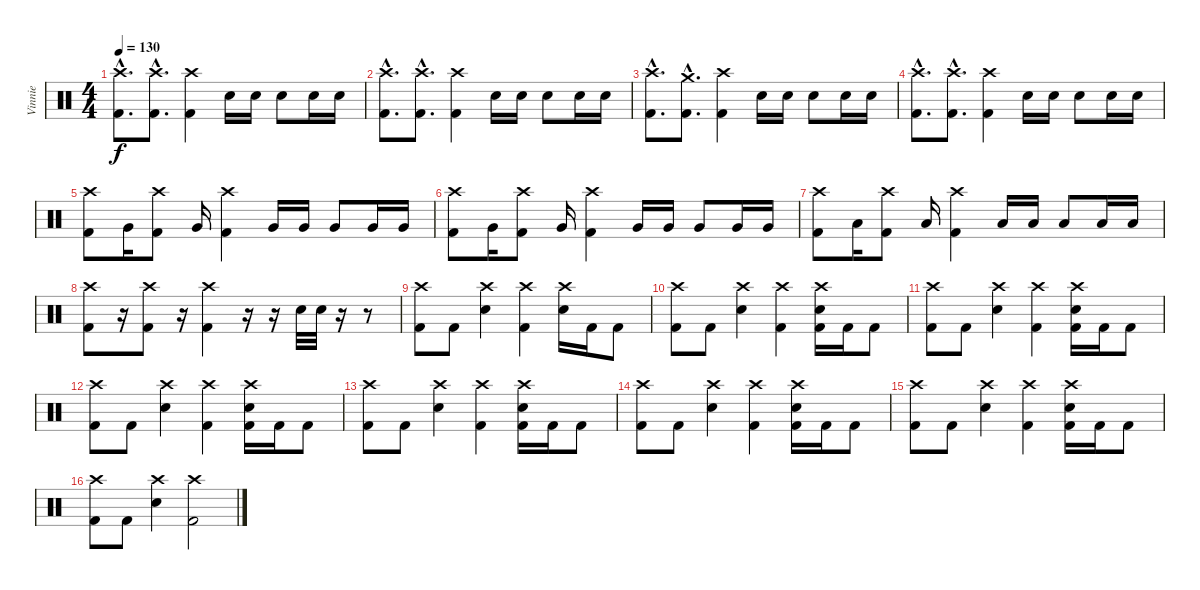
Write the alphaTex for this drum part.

\track ("Vinnie" "Vinnie") {instrument percussion}
\staff {score}
\articulation defaults
\ts (4 4)
\tempo 130
\clef neutral
\ks c
("Crash high (hit)"{hac} "Kick (hit) 2"{hac}).8{d dy f} ("Crash high (hit)"{hac} "Kick (hit) 2"{hac}).8{d} ("Crash high (hit)" "Kick (hit) 2").4 "Electric Snare (hit)".16 "Electric Snare (hit)".16 "Electric Snare (hit)".8 "Electric Snare (hit)".16 "Electric Snare (hit)".16 |
("Crash high (hit)"{hac} "Kick (hit) 2"{hac}).8{d} ("Crash high (hit)"{hac} "Kick (hit) 2"{hac}).8{d} ("Crash high (hit)" "Kick (hit) 2").4 "Electric Snare (hit)".16 "Electric Snare (hit)".16 "Electric Snare (hit)".8 "Electric Snare (hit)".16 "Electric Snare (hit)".16 |
("Crash high (hit)"{hac} "Kick (hit) 2"{hac}).8{d} ("Crash medium (hit)"{hac} "Kick (hit) 2"{hac}).8{d} ("Crash high (hit)" "Kick (hit) 2").4 "Electric Snare (hit)".16 "Electric Snare (hit)".16 "Electric Snare (hit)".8 "Electric Snare (hit)".16 "Electric Snare (hit)".16 |
("Crash high (hit)"{hac} "Kick (hit) 2"{hac}).8{d} ("Crash high (hit)"{hac} "Kick (hit) 2"{hac}).8{d} ("Crash high (hit)" "Kick (hit) 2").4 "Electric Snare (hit)".16 "Electric Snare (hit)".16 "Electric Snare (hit)".8 "Electric Snare (hit)".16 "Electric Snare (hit)".16 |
("Crash high (hit)" "Kick (hit) 2").8 "Very Low Tom (hit)".16 ("Crash high (hit)" "Kick (hit) 2").8 "Very Low Tom (hit)".16 ("Crash high (hit)" "Kick (hit) 2").4 "Very Low Tom (hit)".16 "Very Low Tom (hit)".16 "Very Low Tom (hit)".8 "Very Low Tom (hit)".16 "Very Low Tom (hit)".16 |
("Crash high (hit)" "Kick (hit) 2").8 "Very Low Tom (hit)".16 ("Crash high (hit)" "Kick (hit) 2").8 "Very Low Tom (hit)".16 ("Crash high (hit)" "Kick (hit) 2").4 "Very Low Tom (hit)".16 "Very Low Tom (hit)".16 "Very Low Tom (hit)".8 "Very Low Tom (hit)".16 "Very Low Tom (hit)".16 |
("Crash high (hit)" "Kick (hit) 2").8 "Low Floor Tom (hit)".16 ("Crash high (hit)" "Kick (hit) 2").8 "Low Floor Tom (hit)".16 ("Crash high (hit)" "Kick (hit) 2").4 "Low Floor Tom (hit)".16 "Low Floor Tom (hit)".16 "Low Floor Tom (hit)".8 "Low Floor Tom (hit)".16 "Low Floor Tom (hit)".16 |
("Crash high (hit)" "Kick (hit) 2").8 r.16 ("Crash high (hit)" "Kick (hit) 2").8 r.16 ("Crash high (hit)" "Kick (hit) 2").4 r.16 r.16 "Electric Snare (hit)".32 "Electric Snare (hit)".32 r.16 r.8 |
("Crash high (hit)" "Kick (hit) 2").8 "Kick (hit) 2".8 ("Crash high (hit)" "Electric Snare (hit)").4 ("Crash high (hit)" "Kick (hit) 2").4 ("Crash high (hit)" "Electric Snare (hit)").16 "Kick (hit) 2".16 "Kick (hit) 2".8 |
("Crash high (hit)" "Kick (hit) 2").8 "Kick (hit) 2".8 ("Crash high (hit)" "Electric Snare (hit)").4 ("Crash high (hit)" "Kick (hit) 2").4 ("Crash high (hit)" "Electric Snare (hit)" "Kick (hit) 2").16 "Kick (hit) 2".16 "Kick (hit) 2".8 |
("Crash high (hit)" "Kick (hit) 2").8 "Kick (hit) 2".8 ("Crash high (hit)" "Electric Snare (hit)").4 ("Crash high (hit)" "Kick (hit) 2").4 ("Crash high (hit)" "Electric Snare (hit)" "Kick (hit) 2").16 "Kick (hit) 2".16 "Kick (hit) 2".8 |
("Crash high (hit)" "Kick (hit) 2").8 "Kick (hit) 2".8 ("Crash high (hit)" "Electric Snare (hit)").4 ("Crash high (hit)" "Kick (hit) 2").4 ("Crash high (hit)" "Electric Snare (hit)" "Kick (hit) 2").16 "Kick (hit) 2".16 "Kick (hit) 2".8 |
("Crash high (hit)" "Kick (hit) 2").8 "Kick (hit) 2".8 ("Crash high (hit)" "Electric Snare (hit)").4 ("Crash high (hit)" "Kick (hit) 2").4 ("Crash high (hit)" "Electric Snare (hit)" "Kick (hit) 2").16 "Kick (hit) 2".16 "Kick (hit) 2".8 |
("Crash high (hit)" "Kick (hit) 2").8 "Kick (hit) 2".8 ("Crash high (hit)" "Electric Snare (hit)").4 ("Crash high (hit)" "Kick (hit) 2").4 ("Crash high (hit)" "Electric Snare (hit)" "Kick (hit) 2").16 "Kick (hit) 2".16 "Kick (hit) 2".8 |
("Crash high (hit)" "Kick (hit) 2").8 "Kick (hit) 2".8 ("Crash high (hit)" "Electric Snare (hit)").4 ("Crash high (hit)" "Kick (hit) 2").4 ("Crash high (hit)" "Electric Snare (hit)" "Kick (hit) 2").16 "Kick (hit) 2".16 "Kick (hit) 2".8 |
("Crash high (hit)" "Kick (hit) 2").8 "Kick (hit) 2".8 ("Crash high (hit)" "Electric Snare (hit)").4 ("Crash high (hit)" "Kick (hit) 2").2
